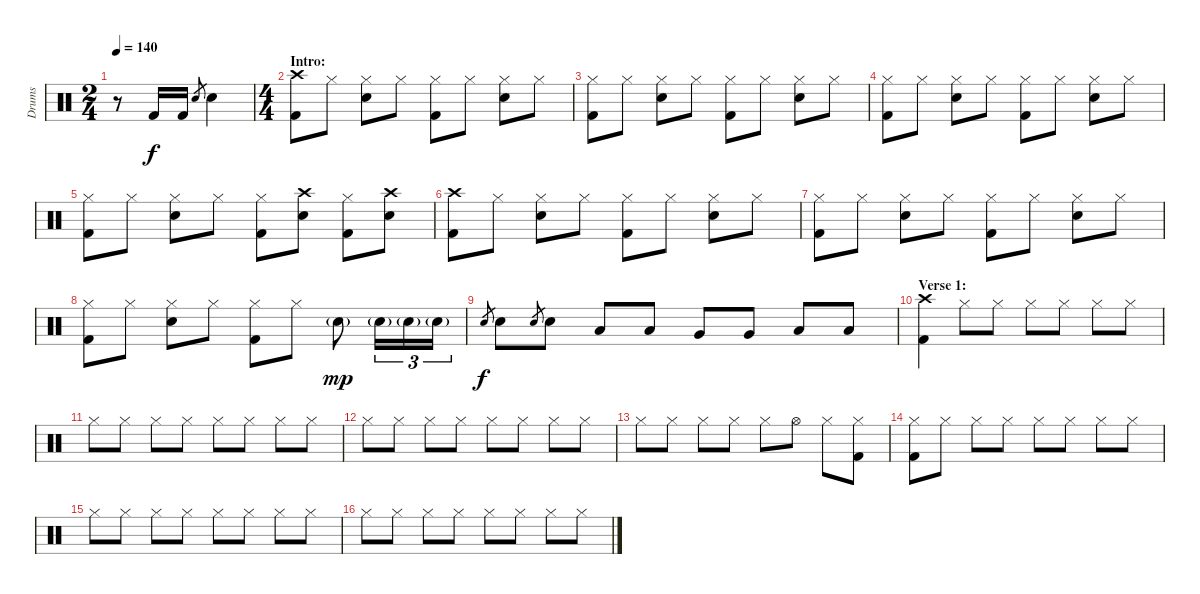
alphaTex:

\track ("Drums" "Drums") {instrument percussion}
\staff {score}
\articulation defaults
\ts (2 4)
\tempo 140
\clef neutral
\ks c
r.8{dy f} "Kick (hit) 2".16 "Kick (hit) 2".16 "Electric Snare (hit)".8{gr} "Electric Snare (hit)".4 |
\ts (4 4)
\section ("" "Intro:")
("Crash high (hit)" "Kick (hit) 2").8 "Hi-Hat (closed)".8 ("Hi-Hat (closed)" "Electric Snare (hit)").8 "Hi-Hat (closed)".8 ("Hi-Hat (closed)" "Kick (hit) 2").8 "Hi-Hat (closed)".8 ("Hi-Hat (closed)" "Electric Snare (hit)").8 "Hi-Hat (closed)".8 |
("Hi-Hat (closed)" "Kick (hit) 2").8 "Hi-Hat (closed)".8 ("Hi-Hat (closed)" "Electric Snare (hit)").8 "Hi-Hat (closed)".8 ("Hi-Hat (closed)" "Kick (hit) 2").8 "Hi-Hat (closed)".8 ("Hi-Hat (closed)" "Electric Snare (hit)").8 "Hi-Hat (closed)".8 |
("Hi-Hat (closed)" "Kick (hit) 2").8 "Hi-Hat (closed)".8 ("Hi-Hat (closed)" "Electric Snare (hit)").8 "Hi-Hat (closed)".8 ("Hi-Hat (closed)" "Kick (hit) 2").8 "Hi-Hat (closed)".8 ("Hi-Hat (closed)" "Electric Snare (hit)").8 "Hi-Hat (closed)".8 |
("Hi-Hat (closed)" "Kick (hit) 2").8 "Hi-Hat (closed)".8 ("Hi-Hat (closed)" "Electric Snare (hit)").8 "Hi-Hat (closed)".8 ("Hi-Hat (closed)" "Kick (hit) 2").8 ("Crash high (hit)" "Electric Snare (hit)").8 ("Hi-Hat (closed)" "Kick (hit) 2").8 ("Crash high (hit)" "Electric Snare (hit)").8 |
("Crash high (hit)" "Kick (hit) 2").8 "Hi-Hat (closed)".8 ("Hi-Hat (closed)" "Electric Snare (hit)").8 "Hi-Hat (closed)".8 ("Hi-Hat (closed)" "Kick (hit) 2").8 "Hi-Hat (closed)".8 ("Hi-Hat (closed)" "Electric Snare (hit)").8 "Hi-Hat (closed)".8 |
("Hi-Hat (closed)" "Kick (hit) 2").8 "Hi-Hat (closed)".8 ("Hi-Hat (closed)" "Electric Snare (hit)").8 "Hi-Hat (closed)".8 ("Hi-Hat (closed)" "Kick (hit) 2").8 "Hi-Hat (closed)".8 ("Hi-Hat (closed)" "Electric Snare (hit)").8 "Hi-Hat (closed)".8 |
("Hi-Hat (closed)" "Kick (hit) 2").8 "Hi-Hat (closed)".8 ("Hi-Hat (closed)" "Electric Snare (hit)").8 "Hi-Hat (closed)".8 ("Hi-Hat (closed)" "Kick (hit) 2").8 "Hi-Hat (closed)".8 "Electric Snare (hit)"{g}.8{dy mp} "Electric Snare (hit)"{g}.16{tu (3 2)} "Electric Snare (hit)"{g}.16{tu (3 2)} "Electric Snare (hit)"{g}.16{tu (3 2)} |
"Electric Snare (hit)".8{gr dy f} "Electric Snare (hit)".8 "Electric Snare (hit)".8{gr} "Electric Snare (hit)".8 "Low Tom (hit)".8 "Low Tom (hit)".8 "Very Low Tom (hit)".8 "Very Low Tom (hit)".8 "Low Floor Tom (hit)".8 "Low Floor Tom (hit)".8 |
\section ("" "Verse 1:")
("Crash high (hit)" "Kick (hit) 2").4 "Hi-Hat (closed)".8 "Hi-Hat (closed)".8 "Hi-Hat (closed)".8 "Hi-Hat (closed)".8 "Hi-Hat (closed)".8 "Hi-Hat (closed)".8 |
"Hi-Hat (closed)".8 "Hi-Hat (closed)".8 "Hi-Hat (closed)".8 "Hi-Hat (closed)".8 "Hi-Hat (closed)".8 "Hi-Hat (closed)".8 "Hi-Hat (closed)".8 "Hi-Hat (closed)".8 |
"Hi-Hat (closed)".8 "Hi-Hat (closed)".8 "Hi-Hat (closed)".8 "Hi-Hat (closed)".8 "Hi-Hat (closed)".8 "Hi-Hat (closed)".8 "Hi-Hat (closed)".8 "Hi-Hat (closed)".8 |
"Hi-Hat (closed)".8 "Hi-Hat (closed)".8 "Hi-Hat (closed)".8 "Hi-Hat (closed)".8 "Hi-Hat (closed)".8 "Hi-Hat (open)".8 "Hi-Hat (closed)".8 ("Hi-Hat (closed)" "Kick (hit) 2").8 |
("Hi-Hat (closed)" "Kick (hit) 2").8 "Hi-Hat (closed)".8 "Hi-Hat (closed)".8 "Hi-Hat (closed)".8 "Hi-Hat (closed)".8 "Hi-Hat (closed)".8 "Hi-Hat (closed)".8 "Hi-Hat (closed)".8 |
"Hi-Hat (closed)".8 "Hi-Hat (closed)".8 "Hi-Hat (closed)".8 "Hi-Hat (closed)".8 "Hi-Hat (closed)".8 "Hi-Hat (closed)".8 "Hi-Hat (closed)".8 "Hi-Hat (closed)".8 |
"Hi-Hat (closed)".8 "Hi-Hat (closed)".8 "Hi-Hat (closed)".8 "Hi-Hat (closed)".8 "Hi-Hat (closed)".8 "Hi-Hat (closed)".8 "Hi-Hat (closed)".8 "Hi-Hat (closed)".8
